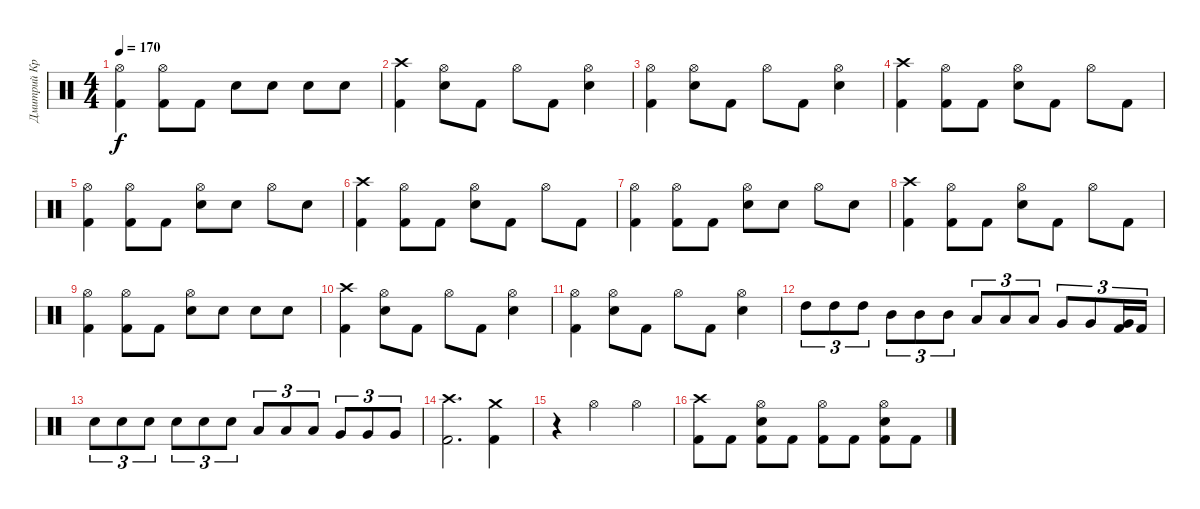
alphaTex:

\track ("Дмитрий Кривенков" "Дмитрий Кр") {instrument percussion}
\staff {score}
\articulation defaults
\ts (4 4)
\tempo 170
\clef neutral
\ks c
("Hi-Hat (open)" "Kick (hit) 2").4{dy f} ("Hi-Hat (open)" "Kick (hit) 2").8 "Kick (hit) 2".8 "Electric Snare (hit)".8 "Electric Snare (hit)".8 "Electric Snare (hit)".8 "Electric Snare (hit)".8 |
("Crash high (hit)" "Kick (hit) 2").4 ("Hi-Hat (open)" "Electric Snare (hit)").8 "Kick (hit) 2".8 "Hi-Hat (open)".8 "Kick (hit) 2".8 ("Hi-Hat (open)" "Electric Snare (hit)").4 |
("Hi-Hat (open)" "Kick (hit) 2").4 ("Hi-Hat (open)" "Electric Snare (hit)").8 "Kick (hit) 2".8 "Hi-Hat (open)".8 "Kick (hit) 2".8 ("Hi-Hat (open)" "Electric Snare (hit)").4 |
("Crash high (hit)" "Kick (hit) 2").4 ("Hi-Hat (open)" "Kick (hit) 2").8 "Kick (hit) 2".8 ("Hi-Hat (open)" "Electric Snare (hit)").8 "Kick (hit) 2".8 "Hi-Hat (open)".8 "Kick (hit) 2".8 |
("Hi-Hat (open)" "Kick (hit) 2").4 ("Hi-Hat (open)" "Kick (hit) 2").8 "Kick (hit) 2".8 ("Hi-Hat (open)" "Electric Snare (hit)").8 "Electric Snare (hit)".8 "Hi-Hat (open)".8 "Electric Snare (hit)".8 |
("Crash high (hit)" "Kick (hit) 2").4 ("Hi-Hat (open)" "Kick (hit) 2").8 "Kick (hit) 2".8 ("Hi-Hat (open)" "Electric Snare (hit)").8 "Kick (hit) 2".8 "Hi-Hat (open)".8 "Kick (hit) 2".8 |
("Hi-Hat (open)" "Kick (hit) 2").4 ("Hi-Hat (open)" "Kick (hit) 2").8 "Kick (hit) 2".8 ("Hi-Hat (open)" "Electric Snare (hit)").8 "Electric Snare (hit)".8 "Hi-Hat (open)".8 "Electric Snare (hit)".8 |
("Crash high (hit)" "Kick (hit) 2").4 ("Hi-Hat (open)" "Kick (hit) 2").8 "Kick (hit) 2".8 ("Hi-Hat (open)" "Electric Snare (hit)").8 "Kick (hit) 2".8 "Hi-Hat (open)".8 "Kick (hit) 2".8 |
("Hi-Hat (open)" "Kick (hit) 2").4 ("Hi-Hat (open)" "Kick (hit) 2").8 "Kick (hit) 2".8 ("Hi-Hat (open)" "Electric Snare (hit)").8 "Electric Snare (hit)".8 "Electric Snare (hit)".8 "Electric Snare (hit)".8 |
("Crash high (hit)" "Kick (hit) 2").4 ("Hi-Hat (open)" "Electric Snare (hit)").8 "Kick (hit) 2".8 "Hi-Hat (open)".8 "Kick (hit) 2".8 ("Hi-Hat (open)" "Electric Snare (hit)").4 |
("Hi-Hat (open)" "Kick (hit) 2").4 ("Hi-Hat (open)" "Electric Snare (hit)").8 "Kick (hit) 2".8 "Hi-Hat (open)".8 "Kick (hit) 2".8 ("Hi-Hat (open)" "Electric Snare (hit)").4 |
"High Tom (hit)".8{tu (3 2)} "High Tom (hit)".8{tu (3 2)} "High Tom (hit)".8{tu (3 2)} "Mid Tom (hit)".8{tu (3 2)} "Mid Tom (hit)".8{tu (3 2)} "Mid Tom (hit)".8{tu (3 2)} "Low Tom (hit)".8{tu (3 2)} "Low Tom (hit)".8{tu (3 2)} "Low Tom (hit)".8{tu (3 2)} "Very Low Tom (hit)".8{tu (3 2)} "Very Low Tom (hit)".8{tu (3 2)} ("Very Low Tom (hit)" "Kick (hit) 2").16{tu (3 2)} "Kick (hit) 2".16{tu (3 2)} |
"Electric Snare (hit)".8{tu (3 2)} "Electric Snare (hit)".8{tu (3 2)} "Electric Snare (hit)".8{tu (3 2)} "Electric Snare (hit)".8{tu (3 2)} "Electric Snare (hit)".8{tu (3 2)} "Electric Snare (hit)".8{tu (3 2)} "Low Tom (hit)".8{tu (3 2)} "Low Tom (hit)".8{tu (3 2)} "Low Tom (hit)".8{tu (3 2)} "Very Low Tom (hit)".8{tu (3 2)} "Very Low Tom (hit)".8{tu (3 2)} "Very Low Tom (hit)".8{tu (3 2)} |
("Crash high (hit)" "Kick (hit) 2").2{d} ("Crash medium (hit)" "Kick (hit) 2").4 |
r.4 "Hi-Hat (open)".2 "Hi-Hat (open)".4 |
("Crash high (hit)" "Kick (hit) 2").8 "Kick (hit) 2".8 ("Hi-Hat (open)" "Electric Snare (hit)" "Kick (hit) 2").8 "Kick (hit) 2".8 ("Hi-Hat (open)" "Kick (hit) 2").8 "Kick (hit) 2".8 ("Hi-Hat (open)" "Electric Snare (hit)" "Kick (hit) 2").8 "Kick (hit) 2".8
